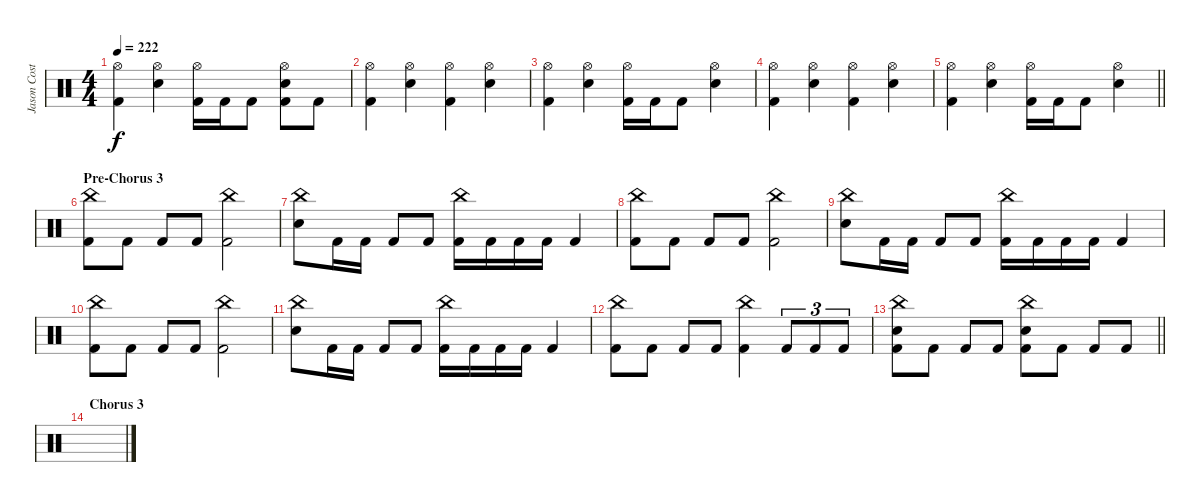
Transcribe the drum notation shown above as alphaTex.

\track ("Jason Costa" "Jason Cost") {instrument percussion}
\staff {score}
\articulation defaults
\ts (4 4)
\tempo 222
\clef neutral
\ks c
("Hi-Hat (open)" "Kick (hit) 2").4{dy f} ("Hi-Hat (open)" "Electric Snare (hit)").4 ("Hi-Hat (open)" "Kick (hit) 2").16 "Kick (hit) 2".16 "Kick (hit) 2".8 ("Hi-Hat (open)" "Electric Snare (hit)" "Kick (hit) 2").8 "Kick (hit) 2".8 |
("Hi-Hat (open)" "Kick (hit) 2").4 ("Hi-Hat (open)" "Electric Snare (hit)").4 ("Hi-Hat (open)" "Kick (hit) 2").4 ("Hi-Hat (open)" "Electric Snare (hit)").4 |
("Hi-Hat (open)" "Kick (hit) 2").4 ("Hi-Hat (open)" "Electric Snare (hit)").4 ("Hi-Hat (open)" "Kick (hit) 2").16 "Kick (hit) 2".16 "Kick (hit) 2".8 ("Hi-Hat (open)" "Electric Snare (hit)").4 |
("Hi-Hat (open)" "Kick (hit) 2").4 ("Hi-Hat (open)" "Electric Snare (hit)").4 ("Hi-Hat (open)" "Kick (hit) 2").4 ("Hi-Hat (open)" "Electric Snare (hit)").4 |
\barLineRight lightlight
("Hi-Hat (open)" "Kick (hit) 2").4 ("Hi-Hat (open)" "Electric Snare (hit)").4 ("Hi-Hat (open)" "Kick (hit) 2").16 "Kick (hit) 2".16 "Kick (hit) 2".8 ("Hi-Hat (open)" "Electric Snare (hit)").4 |
\section ("" "Pre-Chorus 3")
("China (hit)" "Kick (hit) 2").8 "Kick (hit) 2".8 "Kick (hit) 2".8 "Kick (hit) 2".8 ("China (hit)" "Kick (hit) 2").2 |
("China (hit)" "Electric Snare (hit)").8 "Kick (hit) 2".16 "Kick (hit) 2".16 "Kick (hit) 2".8 "Kick (hit) 2".8 ("China (hit)" "Kick (hit) 2").16 "Kick (hit) 2".16 "Kick (hit) 2".16 "Kick (hit) 2".16 "Kick (hit) 2".4 |
("China (hit)" "Kick (hit) 2").8 "Kick (hit) 2".8 "Kick (hit) 2".8 "Kick (hit) 2".8 ("China (hit)" "Kick (hit) 2").2 |
("China (hit)" "Electric Snare (hit)").8 "Kick (hit) 2".16 "Kick (hit) 2".16 "Kick (hit) 2".8 "Kick (hit) 2".8 ("China (hit)" "Kick (hit) 2").16 "Kick (hit) 2".16 "Kick (hit) 2".16 "Kick (hit) 2".16 "Kick (hit) 2".4 |
("China (hit)" "Kick (hit) 2").8 "Kick (hit) 2".8 "Kick (hit) 2".8 "Kick (hit) 2".8 ("China (hit)" "Kick (hit) 2").2 |
("China (hit)" "Electric Snare (hit)").8 "Kick (hit) 2".16 "Kick (hit) 2".16 "Kick (hit) 2".8 "Kick (hit) 2".8 ("China (hit)" "Kick (hit) 2").16 "Kick (hit) 2".16 "Kick (hit) 2".16 "Kick (hit) 2".16 "Kick (hit) 2".4 |
("China (hit)" "Kick (hit) 2").8 "Kick (hit) 2".8 "Kick (hit) 2".8 "Kick (hit) 2".8 ("China (hit)" "Kick (hit) 2").4 "Kick (hit) 2".8{tu (3 2)} "Kick (hit) 2".8{tu (3 2)} "Kick (hit) 2".8{tu (3 2)} |
\barLineRight lightlight
("China (hit)" "Electric Snare (hit)" "Kick (hit) 2").8 "Kick (hit) 2".8 "Kick (hit) 2".8 "Kick (hit) 2".8 ("China (hit)" "Electric Snare (hit)" "Kick (hit) 2").8 "Kick (hit) 2".8 "Kick (hit) 2".8 "Kick (hit) 2".8 |
\section ("" "Chorus 3")
